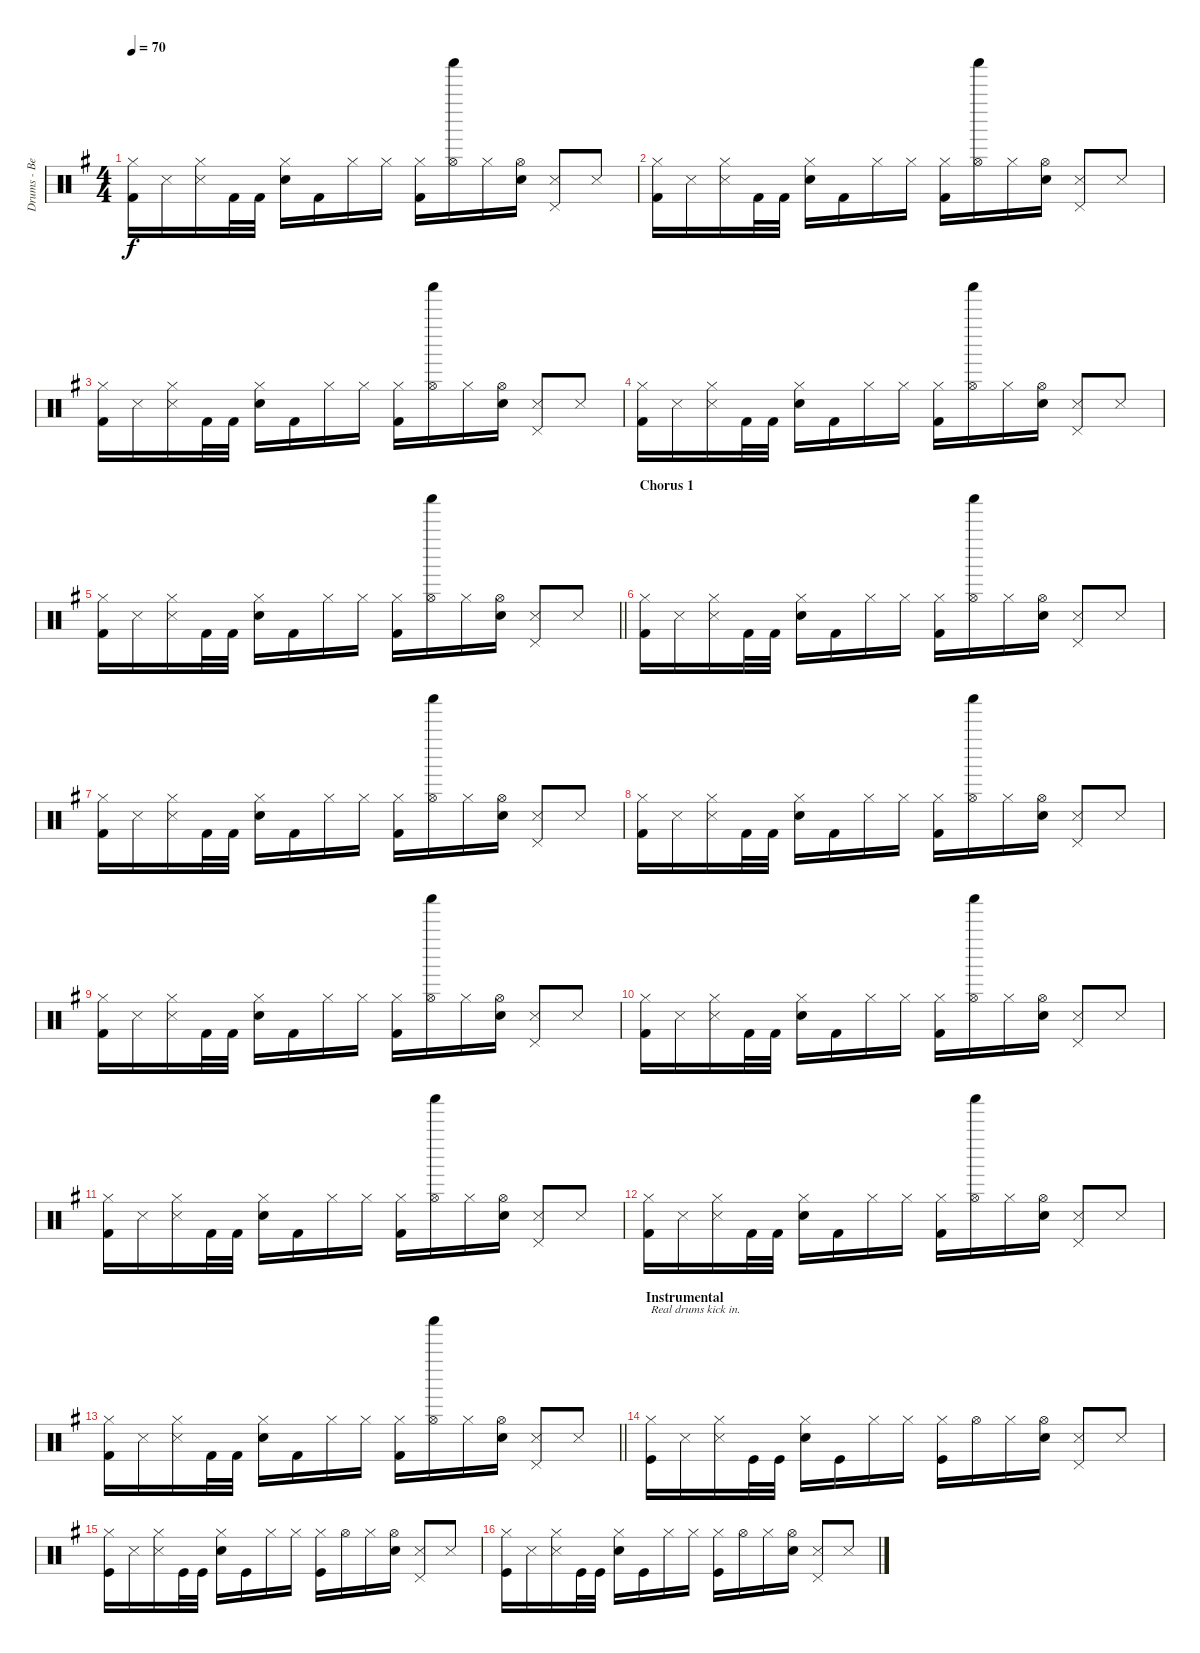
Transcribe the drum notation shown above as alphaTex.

\track ("Drums - Ben Johnston" "Drums - Be") {instrument percussion}
\staff {score}
\articulation defaults
\ts (4 4)
\tempo 70
\clef neutral
\ks g
("Hi-Hat (closed)" "Kick (hit) 2").16{dy f balance 0} "Snare (side stick) 3".16{balance 8} ("Hi-Hat (closed)" "Snare (side stick) 3").16 "Kick (hit) 2".32 "Kick (hit) 2".32 ("Hi-Hat (closed)" "Electric Snare (hit)").16 "Kick (hit) 2".16 "Hi-Hat (closed)".16{balance 0} "Hi-Hat (closed)".16 ("Hi-Hat (closed)" "Kick (hit) 2").16 ("Hi-Hat (open)" "Shaker (hit)").16{balance 16} "Hi-Hat (closed)".16{balance 0} ("Hi-Hat (open)" "Electric Snare (hit)").16{balance 8} ("Snare (side stick) 3" "Pedal Hi-Hat (hit)").8 "Snare (side stick) 3".8 |
("Hi-Hat (closed)" "Kick (hit) 2").16{balance 0} "Snare (side stick) 3".16{balance 8} ("Hi-Hat (closed)" "Snare (side stick) 3").16 "Kick (hit) 2".32 "Kick (hit) 2".32 ("Hi-Hat (closed)" "Electric Snare (hit)").16 "Kick (hit) 2".16 "Hi-Hat (closed)".16{balance 0} "Hi-Hat (closed)".16 ("Hi-Hat (closed)" "Kick (hit) 2").16 ("Hi-Hat (open)" "Shaker (hit)").16{balance 16} "Hi-Hat (closed)".16{balance 0} ("Hi-Hat (open)" "Electric Snare (hit)").16{balance 8} ("Snare (side stick) 3" "Pedal Hi-Hat (hit)").8 "Snare (side stick) 3".8 |
("Hi-Hat (closed)" "Kick (hit) 2").16{balance 0} "Snare (side stick) 3".16{balance 8} ("Hi-Hat (closed)" "Snare (side stick) 3").16 "Kick (hit) 2".32 "Kick (hit) 2".32 ("Hi-Hat (closed)" "Electric Snare (hit)").16 "Kick (hit) 2".16 "Hi-Hat (closed)".16{balance 0} "Hi-Hat (closed)".16 ("Hi-Hat (closed)" "Kick (hit) 2").16 ("Hi-Hat (open)" "Shaker (hit)").16{balance 16} "Hi-Hat (closed)".16{balance 0} ("Hi-Hat (open)" "Electric Snare (hit)").16{balance 8} ("Snare (side stick) 3" "Pedal Hi-Hat (hit)").8 "Snare (side stick) 3".8 |
("Hi-Hat (closed)" "Kick (hit) 2").16{balance 0} "Snare (side stick) 3".16{balance 8} ("Hi-Hat (closed)" "Snare (side stick) 3").16 "Kick (hit) 2".32 "Kick (hit) 2".32 ("Hi-Hat (closed)" "Electric Snare (hit)").16 "Kick (hit) 2".16 "Hi-Hat (closed)".16{balance 0} "Hi-Hat (closed)".16 ("Hi-Hat (closed)" "Kick (hit) 2").16 ("Hi-Hat (open)" "Shaker (hit)").16{balance 16} "Hi-Hat (closed)".16{balance 0} ("Hi-Hat (open)" "Electric Snare (hit)").16{balance 8} ("Snare (side stick) 3" "Pedal Hi-Hat (hit)").8 "Snare (side stick) 3".8 |
\barLineRight lightlight
("Hi-Hat (closed)" "Kick (hit) 2").16{balance 0} "Snare (side stick) 3".16{balance 8} ("Hi-Hat (closed)" "Snare (side stick) 3").16 "Kick (hit) 2".32 "Kick (hit) 2".32 ("Hi-Hat (closed)" "Electric Snare (hit)").16 "Kick (hit) 2".16 "Hi-Hat (closed)".16{balance 0} "Hi-Hat (closed)".16 ("Hi-Hat (closed)" "Kick (hit) 2").16 ("Hi-Hat (open)" "Shaker (hit)").16{balance 16} "Hi-Hat (closed)".16{balance 0} ("Hi-Hat (open)" "Electric Snare (hit)").16{balance 8} ("Snare (side stick) 3" "Pedal Hi-Hat (hit)").8 "Snare (side stick) 3".8 |
\section ("" "Chorus 1")
("Hi-Hat (closed)" "Kick (hit) 2").16{balance 0} "Snare (side stick) 3".16{balance 8} ("Hi-Hat (closed)" "Snare (side stick) 3").16 "Kick (hit) 2".32 "Kick (hit) 2".32 ("Hi-Hat (closed)" "Electric Snare (hit)").16 "Kick (hit) 2".16 "Hi-Hat (closed)".16{balance 0} "Hi-Hat (closed)".16 ("Hi-Hat (closed)" "Kick (hit) 2").16 ("Hi-Hat (open)" "Shaker (hit)").16{balance 16} "Hi-Hat (closed)".16{balance 0} ("Hi-Hat (open)" "Electric Snare (hit)").16{balance 8} ("Snare (side stick) 3" "Pedal Hi-Hat (hit)").8 "Snare (side stick) 3".8 |
("Hi-Hat (closed)" "Kick (hit) 2").16{balance 0} "Snare (side stick) 3".16{balance 8} ("Hi-Hat (closed)" "Snare (side stick) 3").16 "Kick (hit) 2".32 "Kick (hit) 2".32 ("Hi-Hat (closed)" "Electric Snare (hit)").16 "Kick (hit) 2".16 "Hi-Hat (closed)".16{balance 0} "Hi-Hat (closed)".16 ("Hi-Hat (closed)" "Kick (hit) 2").16 ("Hi-Hat (open)" "Shaker (hit)").16{balance 16} "Hi-Hat (closed)".16{balance 0} ("Hi-Hat (open)" "Electric Snare (hit)").16{balance 8} ("Snare (side stick) 3" "Pedal Hi-Hat (hit)").8 "Snare (side stick) 3".8 |
("Hi-Hat (closed)" "Kick (hit) 2").16{balance 0} "Snare (side stick) 3".16{balance 8} ("Hi-Hat (closed)" "Snare (side stick) 3").16 "Kick (hit) 2".32 "Kick (hit) 2".32 ("Hi-Hat (closed)" "Electric Snare (hit)").16 "Kick (hit) 2".16 "Hi-Hat (closed)".16{balance 0} "Hi-Hat (closed)".16 ("Hi-Hat (closed)" "Kick (hit) 2").16 ("Hi-Hat (open)" "Shaker (hit)").16{balance 16} "Hi-Hat (closed)".16{balance 0} ("Hi-Hat (open)" "Electric Snare (hit)").16{balance 8} ("Snare (side stick) 3" "Pedal Hi-Hat (hit)").8 "Snare (side stick) 3".8 |
("Hi-Hat (closed)" "Kick (hit) 2").16{balance 0} "Snare (side stick) 3".16{balance 8} ("Hi-Hat (closed)" "Snare (side stick) 3").16 "Kick (hit) 2".32 "Kick (hit) 2".32 ("Hi-Hat (closed)" "Electric Snare (hit)").16 "Kick (hit) 2".16 "Hi-Hat (closed)".16{balance 0} "Hi-Hat (closed)".16 ("Hi-Hat (closed)" "Kick (hit) 2").16 ("Hi-Hat (open)" "Shaker (hit)").16{balance 16} "Hi-Hat (closed)".16{balance 0} ("Hi-Hat (open)" "Electric Snare (hit)").16{balance 8} ("Snare (side stick) 3" "Pedal Hi-Hat (hit)").8 "Snare (side stick) 3".8 |
("Hi-Hat (closed)" "Kick (hit) 2").16{balance 0} "Snare (side stick) 3".16{balance 8} ("Hi-Hat (closed)" "Snare (side stick) 3").16 "Kick (hit) 2".32 "Kick (hit) 2".32 ("Hi-Hat (closed)" "Electric Snare (hit)").16 "Kick (hit) 2".16 "Hi-Hat (closed)".16{balance 0} "Hi-Hat (closed)".16 ("Hi-Hat (closed)" "Kick (hit) 2").16 ("Hi-Hat (open)" "Shaker (hit)").16{balance 16} "Hi-Hat (closed)".16{balance 0} ("Hi-Hat (open)" "Electric Snare (hit)").16{balance 8} ("Snare (side stick) 3" "Pedal Hi-Hat (hit)").8 "Snare (side stick) 3".8 |
("Hi-Hat (closed)" "Kick (hit) 2").16{balance 0} "Snare (side stick) 3".16{balance 8} ("Hi-Hat (closed)" "Snare (side stick) 3").16 "Kick (hit) 2".32 "Kick (hit) 2".32 ("Hi-Hat (closed)" "Electric Snare (hit)").16 "Kick (hit) 2".16 "Hi-Hat (closed)".16{balance 0} "Hi-Hat (closed)".16 ("Hi-Hat (closed)" "Kick (hit) 2").16 ("Hi-Hat (open)" "Shaker (hit)").16{balance 16} "Hi-Hat (closed)".16{balance 0} ("Hi-Hat (open)" "Electric Snare (hit)").16{balance 8} ("Snare (side stick) 3" "Pedal Hi-Hat (hit)").8 "Snare (side stick) 3".8 |
("Hi-Hat (closed)" "Kick (hit) 2").16{balance 0} "Snare (side stick) 3".16{balance 8} ("Hi-Hat (closed)" "Snare (side stick) 3").16 "Kick (hit) 2".32 "Kick (hit) 2".32 ("Hi-Hat (closed)" "Electric Snare (hit)").16 "Kick (hit) 2".16 "Hi-Hat (closed)".16{balance 0} "Hi-Hat (closed)".16 ("Hi-Hat (closed)" "Kick (hit) 2").16 ("Hi-Hat (open)" "Shaker (hit)").16{balance 16} "Hi-Hat (closed)".16{balance 0} ("Hi-Hat (open)" "Electric Snare (hit)").16{balance 8} ("Snare (side stick) 3" "Pedal Hi-Hat (hit)").8 "Snare (side stick) 3".8 |
\barLineRight lightlight
("Hi-Hat (closed)" "Kick (hit) 2").16{balance 0} "Snare (side stick) 3".16{balance 8} ("Hi-Hat (closed)" "Snare (side stick) 3").16 "Kick (hit) 2".32 "Kick (hit) 2".32 ("Hi-Hat (closed)" "Electric Snare (hit)").16 "Kick (hit) 2".16 "Hi-Hat (closed)".16{balance 0} "Hi-Hat (closed)".16 ("Hi-Hat (closed)" "Kick (hit) 2").16 ("Hi-Hat (open)" "Shaker (hit)").16{balance 16} "Hi-Hat (closed)".16{balance 0} ("Hi-Hat (open)" "Electric Snare (hit)").16{balance 8} ("Snare (side stick) 3" "Pedal Hi-Hat (hit)").8 "Snare (side stick) 3".8 |
\section ("" "Instrumental")
("Hi-Hat (closed)" "Kick (hit)").16{txt "Real drums kick in."} "Snare (side stick) 3".16 ("Hi-Hat (closed)" "Snare (side stick) 3").16 "Kick (hit)".32 "Kick (hit)".32 ("Hi-Hat (closed)" "Snare (hit) 2").16 "Kick (hit)".16 "Hi-Hat (closed)".16 "Hi-Hat (closed)".16 ("Hi-Hat (closed)" "Kick (hit)").16 "Hi-Hat (open)".16 "Hi-Hat (closed)".16 ("Hi-Hat (open)" "Snare (hit) 2").16 ("Snare (side stick) 3" "Pedal Hi-Hat (hit)").8 "Snare (side stick) 3".8 |
("Hi-Hat (closed)" "Kick (hit)").16 "Snare (side stick) 3".16 ("Hi-Hat (closed)" "Snare (side stick) 3").16 "Kick (hit)".32 "Kick (hit)".32 ("Hi-Hat (closed)" "Snare (hit) 2").16 "Kick (hit)".16 "Hi-Hat (closed)".16 "Hi-Hat (closed)".16 ("Hi-Hat (closed)" "Kick (hit)").16 "Hi-Hat (open)".16 "Hi-Hat (closed)".16 ("Hi-Hat (open)" "Snare (hit) 2").16 ("Snare (side stick) 3" "Pedal Hi-Hat (hit)").8 "Snare (side stick) 3".8 |
("Hi-Hat (closed)" "Kick (hit)").16 "Snare (side stick) 3".16 ("Hi-Hat (closed)" "Snare (side stick) 3").16 "Kick (hit)".32 "Kick (hit)".32 ("Hi-Hat (closed)" "Snare (hit) 2").16 "Kick (hit)".16 "Hi-Hat (closed)".16 "Hi-Hat (closed)".16 ("Hi-Hat (closed)" "Kick (hit)").16 "Hi-Hat (open)".16 "Hi-Hat (closed)".16 ("Hi-Hat (open)" "Snare (hit) 2").16 ("Snare (side stick) 3" "Pedal Hi-Hat (hit)").8 "Snare (side stick) 3".8
